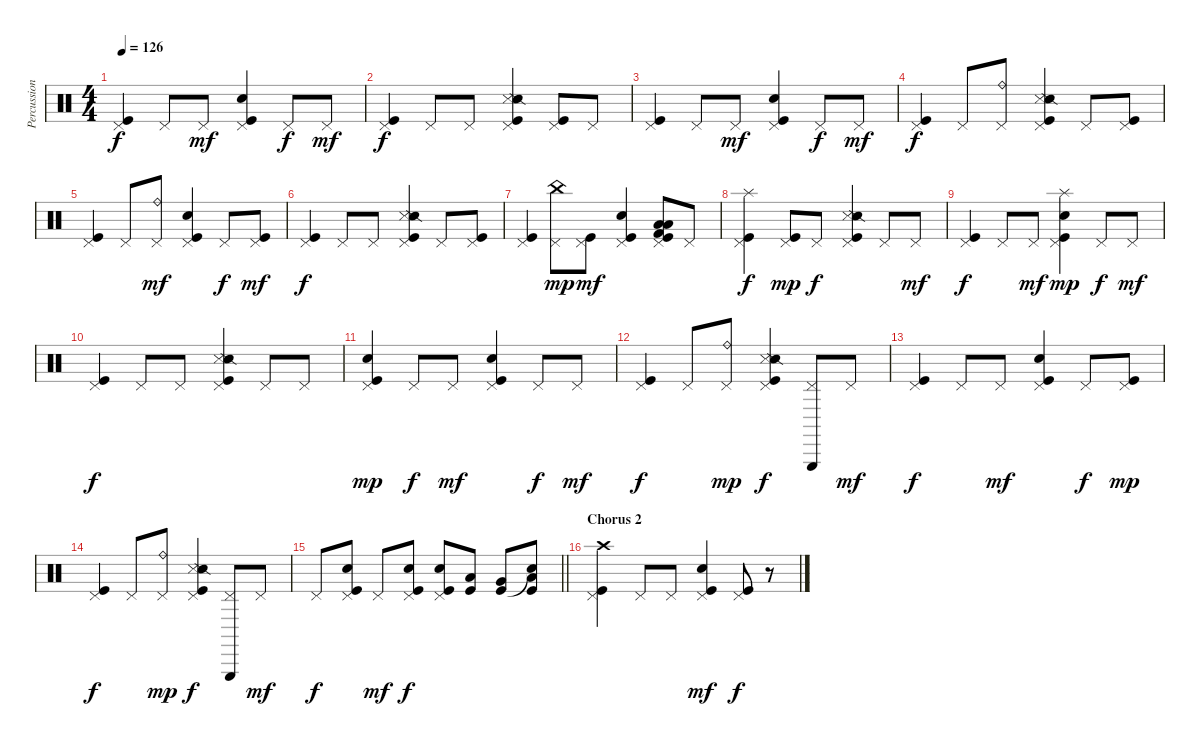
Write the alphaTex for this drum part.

\track ("Percussion" "Percussion") {instrument percussion}
\staff {score}
\articulation defaults
\ts (4 4)
\tempo 126
\clef neutral
\ks c
("Pedal Hi-Hat (hit)" "Kick (hit)").4{dy f} "Pedal Hi-Hat (hit)".8 "Pedal Hi-Hat (hit)".8{dy mf} ("Pedal Hi-Hat (hit)" "Kick (hit)" "Electric Snare (hit)").4 "Pedal Hi-Hat (hit)".8{dy f} "Pedal Hi-Hat (hit)".8{dy mf} |
("Pedal Hi-Hat (hit)" "Kick (hit)").4{dy f} "Pedal Hi-Hat (hit)".8 "Pedal Hi-Hat (hit)".8 ("Pedal Hi-Hat (hit)" "Snare (side stick) 3" "Snare (side stick) 2" "Kick (hit)").4 ("Pedal Hi-Hat (hit)" "Kick (hit)").8 "Pedal Hi-Hat (hit)".8 |
("Pedal Hi-Hat (hit)" "Kick (hit)").4 "Pedal Hi-Hat (hit)".8 "Pedal Hi-Hat (hit)".8{dy mf} ("Pedal Hi-Hat (hit)" "Kick (hit)" "Electric Snare (hit)").4 "Pedal Hi-Hat (hit)".8{dy f} "Pedal Hi-Hat (hit)".8{dy mf} |
("Pedal Hi-Hat (hit)" "Kick (hit)").4{dy f} "Pedal Hi-Hat (hit)".8 ("Pedal Hi-Hat (hit)" "Ride (bell)").8 ("Pedal Hi-Hat (hit)" "Snare (side stick) 3" "Snare (side stick) 2" "Kick (hit)").4 "Pedal Hi-Hat (hit)".8 ("Pedal Hi-Hat (hit)" "Kick (hit)").8 |
("Pedal Hi-Hat (hit)" "Kick (hit)").4 "Pedal Hi-Hat (hit)".8 ("Pedal Hi-Hat (hit)" "Ride (bell)").8{dy mf} ("Pedal Hi-Hat (hit)" "Kick (hit)" "Electric Snare (hit)").4 "Pedal Hi-Hat (hit)".8{dy f} ("Pedal Hi-Hat (hit)" "Kick (hit)").8{dy mf} |
("Pedal Hi-Hat (hit)" "Kick (hit)").4{dy f} "Pedal Hi-Hat (hit)".8 "Pedal Hi-Hat (hit)".8 ("Pedal Hi-Hat (hit)" "Snare (side stick) 3" "Snare (side stick) 2" "Kick (hit)").4 "Pedal Hi-Hat (hit)".8 ("Pedal Hi-Hat (hit)" "Kick (hit)").8 |
("Pedal Hi-Hat (hit)" "Kick (hit)").4 ("Pedal Hi-Hat (hit)" "China (hit)").8{dy mp} ("Pedal Hi-Hat (hit)" "Kick (hit)").8{dy mf} ("Pedal Hi-Hat (hit)" "Kick (hit)" "Electric Snare (hit)").4 ("Low Floor Tom (hit)" "Pedal Hi-Hat (hit)" "Kick (hit) 2" "Kick (hit)" "Low Floor Tom (hit)").8 "Pedal Hi-Hat (hit)".8 |
("Pedal Hi-Hat (hit)" "Kick (hit)" "Splash (hit)").4{dy f} ("Pedal Hi-Hat (hit)" "Kick (hit)").8{dy mp} "Pedal Hi-Hat (hit)".8{dy f} ("Pedal Hi-Hat (hit)" "Snare (side stick) 3" "Snare (side stick) 2" "Kick (hit)").4 "Pedal Hi-Hat (hit)".8 "Pedal Hi-Hat (hit)".8{dy mf} |
("Pedal Hi-Hat (hit)" "Kick (hit)").4{dy f} "Pedal Hi-Hat (hit)".8 "Pedal Hi-Hat (hit)".8{dy mf} ("Pedal Hi-Hat (hit)" "Kick (hit)" "Electric Snare (hit)" "Splash (hit)").4{dy mp} "Pedal Hi-Hat (hit)".8{dy f} "Pedal Hi-Hat (hit)".8{dy mf} |
("Pedal Hi-Hat (hit)" "Kick (hit)").4{dy f} "Pedal Hi-Hat (hit)".8 "Pedal Hi-Hat (hit)".8 ("Pedal Hi-Hat (hit)" "Snare (side stick) 3" "Snare (side stick) 2" "Kick (hit)").4 "Pedal Hi-Hat (hit)".8 "Pedal Hi-Hat (hit)".8 |
("Metronome (bell)" "Pedal Hi-Hat (hit)" "Kick (hit)").4{dy mp} "Pedal Hi-Hat (hit)".8{dy f} "Pedal Hi-Hat (hit)".8{dy mf} ("Pedal Hi-Hat (hit)" "Kick (hit)" "Electric Snare (hit)").4 "Pedal Hi-Hat (hit)".8{dy f} "Pedal Hi-Hat (hit)".8{dy mf} |
("Pedal Hi-Hat (hit)" "Kick (hit)").4{dy f} "Pedal Hi-Hat (hit)".8 ("Pedal Hi-Hat (hit)" "Ride (bell)").8{dy mp} ("Pedal Hi-Hat (hit)" "Snare (side stick) 3" "Snare (side stick) 2" "Kick (hit)").4{dy f} ("Pedal Hi-Hat (hit)" "Triangle (hit)").8 "Pedal Hi-Hat (hit)".8{dy mf} |
("Pedal Hi-Hat (hit)" "Kick (hit)").4{dy f} "Pedal Hi-Hat (hit)".8 "Pedal Hi-Hat (hit)".8{dy mf} ("Pedal Hi-Hat (hit)" "Kick (hit)" "Electric Snare (hit)").4 "Pedal Hi-Hat (hit)".8{dy f} ("Pedal Hi-Hat (hit)" "Kick (hit)").8{dy mp} |
("Pedal Hi-Hat (hit)" "Kick (hit)").4{dy f} "Pedal Hi-Hat (hit)".8 ("Pedal Hi-Hat (hit)" "Ride (bell)").8{dy mp} ("Pedal Hi-Hat (hit)" "Snare (side stick) 3" "Snare (side stick) 2" "Kick (hit)").4{dy f} ("Pedal Hi-Hat (hit)" "Triangle (hit)").8 "Pedal Hi-Hat (hit)".8{dy mf} |
\barLineRight lightlight "Pedal Hi-Hat (hit)".8{dy f}
("Pedal Hi-Hat (hit)" "Electric Snare (hit)" "Kick (hit)").8 "Pedal Hi-Hat (hit)".8{dy mf} ("Metronome (bell)" "Pedal Hi-Hat (hit)" "Kick (hit)").8{dy f} ("Pedal Hi-Hat (hit)" "Electric Snare (hit)" "Kick (hit)").8 ("Kick (hit)" "Low Tom (hit)").8 ("Kick (hit)" "Very Low Tom (hit)").8 ("Snare (hit)"{t} "Kick (hit)" "Low Floor Tom (hit)").8 |
\section ("" "Chorus 2")
("Pedal Hi-Hat (hit)" "Kick (hit)" "Crash high (hit)").4 "Pedal Hi-Hat (hit)".8 "Pedal Hi-Hat (hit)".8 ("Pedal Hi-Hat (hit)" "Electric Snare (hit)" "Kick (hit)").4{dy mf} ("Pedal Hi-Hat (hit)" "Kick (hit)").8{dy f} r.8
